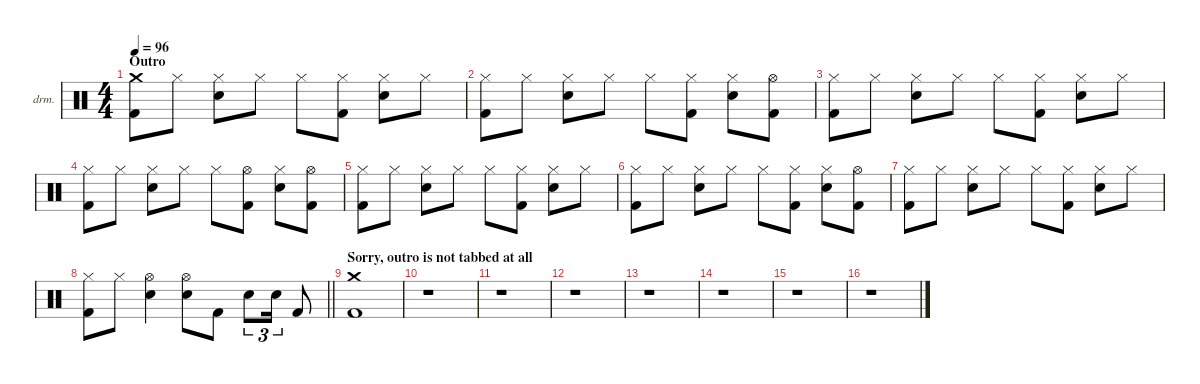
\defaultSystemsLayout 4
\hideDynamics
\bracketExtendMode nobrackets
\firstSystemTrackNameOrientation horizontal
\otherSystemsTrackNameOrientation horizontal
\track ("Percussion" "drm.") {instrument percussion}
\staff {score}
\articulation defaults
\ts (4 4)
\section ("" "Outro")
\tempo 96
\clef neutral
\ks c
("Crash medium (hit)" "Kick (hit) 2").8{dy f beam Down} "Hi-Hat (closed)".8{beam Down} ("Hi-Hat (closed)" "Snare (hit) 2").8{beam Down} "Hi-Hat (closed)".8{beam Down} "Hi-Hat (closed)".8{beam Down} ("Hi-Hat (closed)" "Kick (hit) 2").8{beam Down} ("Hi-Hat (closed)" "Snare (hit) 2").8{beam Down} "Hi-Hat (closed)".8{beam Down} |
("Hi-Hat (closed)" "Kick (hit) 2").8{beam Down} "Hi-Hat (closed)".8{beam Down} ("Hi-Hat (closed)" "Snare (hit) 2").8{beam Down} "Hi-Hat (closed)".8{beam Down} "Hi-Hat (closed)".8{beam Down} ("Hi-Hat (closed)" "Kick (hit) 2").8{beam Down} ("Hi-Hat (closed)" "Snare (hit) 2").8{beam Down} ("Hi-Hat (open)" "Kick (hit) 2").8{dy mf beam Down} |
("Hi-Hat (closed)" "Kick (hit) 2").8{dy f beam Down} "Hi-Hat (closed)".8{beam Down} ("Hi-Hat (closed)" "Snare (hit) 2").8{beam Down} "Hi-Hat (closed)".8{beam Down} "Hi-Hat (closed)".8{beam Down} ("Hi-Hat (closed)" "Kick (hit) 2").8{beam Down} ("Hi-Hat (closed)" "Snare (hit) 2").8{beam Down} "Hi-Hat (closed)".8{beam Down} |
("Hi-Hat (closed)" "Kick (hit) 2").8{beam Down} "Hi-Hat (closed)".8{beam Down} ("Hi-Hat (closed)" "Snare (hit) 2").8{beam Down} "Hi-Hat (closed)".8{beam Down} "Hi-Hat (closed)".8{beam Down} ("Hi-Hat (open)" "Kick (hit) 2").8{dy mf beam Down} ("Hi-Hat (closed)" "Snare (hit) 2").8{dy f beam Down} ("Hi-Hat (open)" "Kick (hit) 2").8{dy mf beam Down} |
("Hi-Hat (closed)" "Kick (hit) 2").8{dy f beam Down} "Hi-Hat (closed)".8{beam Down} ("Hi-Hat (closed)" "Snare (hit) 2").8{beam Down} "Hi-Hat (closed)".8{beam Down} "Hi-Hat (closed)".8{beam Down} ("Hi-Hat (closed)" "Kick (hit) 2").8{beam Down} ("Hi-Hat (closed)" "Snare (hit) 2").8{beam Down} "Hi-Hat (closed)".8{beam Down} |
("Hi-Hat (closed)" "Kick (hit) 2").8{beam Down} "Hi-Hat (closed)".8{beam Down} ("Hi-Hat (closed)" "Snare (hit) 2").8{beam Down} "Hi-Hat (closed)".8{beam Down} "Hi-Hat (closed)".8{beam Down} ("Hi-Hat (closed)" "Kick (hit) 2").8{beam Down} ("Hi-Hat (closed)" "Snare (hit) 2").8{beam Down} ("Hi-Hat (open)" "Kick (hit) 2").8{dy mf beam Down} |
("Hi-Hat (closed)" "Kick (hit) 2").8{dy f beam Down} "Hi-Hat (closed)".8{beam Down} ("Hi-Hat (closed)" "Snare (hit) 2").8{beam Down} "Hi-Hat (closed)".8{beam Down} "Hi-Hat (closed)".8{beam Down} ("Hi-Hat (closed)" "Kick (hit) 2").8{beam Down} ("Hi-Hat (closed)" "Snare (hit) 2").8{beam Down} "Hi-Hat (closed)".8{beam Down} |
\barLineRight lightlight
("Hi-Hat (closed)" "Kick (hit) 2").8{beam Down} "Hi-Hat (closed)".8{beam Down} ("Hi-Hat (open)" "Snare (hit) 2").4{beam Down} ("Hi-Hat (open)" "Snare (hit) 2").8{beam Down} "Kick (hit) 2".8{beam Down} "Snare (hit) 2".8{tu (3 2) beam Down} "Snare (hit) 2".16{tu (3 2) beam Down} "Kick (hit) 2".8{beam Up} |
\section ("" "Sorry, outro is not tabbed at all")
("Crash medium (hit)" "Kick (hit) 2").1{beam Down} |
r.1{beam Down} |
r.1{beam Down} |
r.1{beam Down} |
r.1{beam Down} |
r.1{beam Down} |
r.1{beam Down} |
r.1{beam Down}
